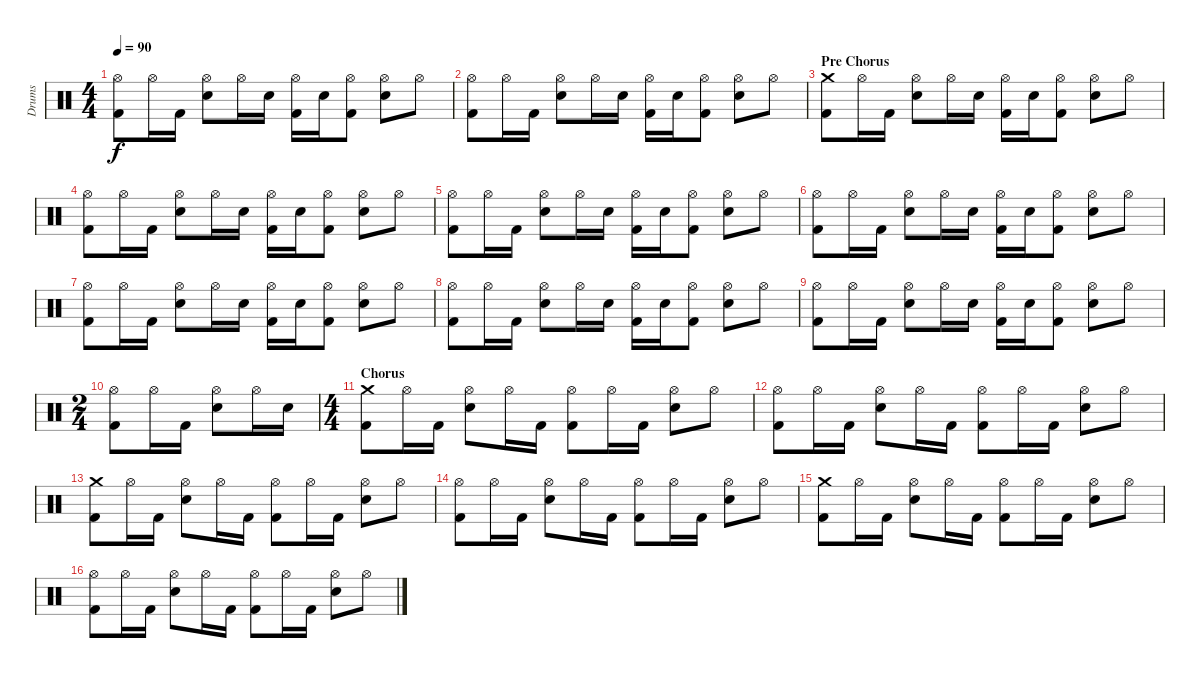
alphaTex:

\track ("Drums" "Drums") {instrument percussion}
\staff {score}
\articulation defaults
\ts (4 4)
\tempo 90
\clef neutral
\ks c
("Hi-Hat (open)" "Kick (hit) 2").8{dy f} "Hi-Hat (open)".16 "Kick (hit) 2".16 ("Hi-Hat (open)" "Electric Snare (hit)").8 "Hi-Hat (open)".16 "Electric Snare (hit)".16 ("Hi-Hat (open)" "Kick (hit) 2").16 "Electric Snare (hit)".16 ("Hi-Hat (open)" "Kick (hit) 2").8 ("Hi-Hat (open)" "Electric Snare (hit)").8 "Hi-Hat (open)".8 |
("Hi-Hat (open)" "Kick (hit) 2").8 "Hi-Hat (open)".16 "Kick (hit) 2".16 ("Hi-Hat (open)" "Electric Snare (hit)").8 "Hi-Hat (open)".16 "Electric Snare (hit)".16 ("Hi-Hat (open)" "Kick (hit) 2").16 "Electric Snare (hit)".16 ("Hi-Hat (open)" "Kick (hit) 2").8 ("Hi-Hat (open)" "Electric Snare (hit)").8 "Hi-Hat (open)".8 |
\section ("" "Pre Chorus")
("Crash medium (hit)" "Kick (hit) 2").8 "Hi-Hat (open)".16 "Kick (hit) 2".16 ("Hi-Hat (open)" "Electric Snare (hit)").8 "Hi-Hat (open)".16 "Electric Snare (hit)".16 ("Hi-Hat (open)" "Kick (hit) 2").16 "Electric Snare (hit)".16 ("Hi-Hat (open)" "Kick (hit) 2").8 ("Hi-Hat (open)" "Electric Snare (hit)").8 "Hi-Hat (open)".8 |
("Hi-Hat (open)" "Kick (hit) 2").8 "Hi-Hat (open)".16 "Kick (hit) 2".16 ("Hi-Hat (open)" "Electric Snare (hit)").8 "Hi-Hat (open)".16 "Electric Snare (hit)".16 ("Hi-Hat (open)" "Kick (hit) 2").16 "Electric Snare (hit)".16 ("Hi-Hat (open)" "Kick (hit) 2").8 ("Hi-Hat (open)" "Electric Snare (hit)").8 "Hi-Hat (open)".8 |
("Hi-Hat (open)" "Kick (hit) 2").8 "Hi-Hat (open)".16 "Kick (hit) 2".16 ("Hi-Hat (open)" "Electric Snare (hit)").8 "Hi-Hat (open)".16 "Electric Snare (hit)".16 ("Hi-Hat (open)" "Kick (hit) 2").16 "Electric Snare (hit)".16 ("Hi-Hat (open)" "Kick (hit) 2").8 ("Hi-Hat (open)" "Electric Snare (hit)").8 "Hi-Hat (open)".8 |
("Hi-Hat (open)" "Kick (hit) 2").8 "Hi-Hat (open)".16 "Kick (hit) 2".16 ("Hi-Hat (open)" "Electric Snare (hit)").8 "Hi-Hat (open)".16 "Electric Snare (hit)".16 ("Hi-Hat (open)" "Kick (hit) 2").16 "Electric Snare (hit)".16 ("Hi-Hat (open)" "Kick (hit) 2").8 ("Hi-Hat (open)" "Electric Snare (hit)").8 "Hi-Hat (open)".8 |
("Hi-Hat (open)" "Kick (hit) 2").8 "Hi-Hat (open)".16 "Kick (hit) 2".16 ("Hi-Hat (open)" "Electric Snare (hit)").8 "Hi-Hat (open)".16 "Electric Snare (hit)".16 ("Hi-Hat (open)" "Kick (hit) 2").16 "Electric Snare (hit)".16 ("Hi-Hat (open)" "Kick (hit) 2").8 ("Hi-Hat (open)" "Electric Snare (hit)").8 "Hi-Hat (open)".8 |
("Hi-Hat (open)" "Kick (hit) 2").8 "Hi-Hat (open)".16 "Kick (hit) 2".16 ("Hi-Hat (open)" "Electric Snare (hit)").8 "Hi-Hat (open)".16 "Electric Snare (hit)".16 ("Hi-Hat (open)" "Kick (hit) 2").16 "Electric Snare (hit)".16 ("Hi-Hat (open)" "Kick (hit) 2").8 ("Hi-Hat (open)" "Electric Snare (hit)").8 "Hi-Hat (open)".8 |
("Hi-Hat (open)" "Kick (hit) 2").8 "Hi-Hat (open)".16 "Kick (hit) 2".16 ("Hi-Hat (open)" "Electric Snare (hit)").8 "Hi-Hat (open)".16 "Electric Snare (hit)".16 ("Hi-Hat (open)" "Kick (hit) 2").16 "Electric Snare (hit)".16 ("Hi-Hat (open)" "Kick (hit) 2").8 ("Hi-Hat (open)" "Electric Snare (hit)").8 "Hi-Hat (open)".8 |
\ts (2 4)
("Hi-Hat (open)" "Kick (hit) 2").8 "Hi-Hat (open)".16 "Kick (hit) 2".16 ("Hi-Hat (open)" "Electric Snare (hit)").8 "Hi-Hat (open)".16 "Electric Snare (hit)".16 |
\ts (4 4)
\section ("" "Chorus")
("Crash medium (hit)" "Kick (hit) 2").8 "Hi-Hat (open)".16 "Kick (hit) 2".16 ("Hi-Hat (open)" "Electric Snare (hit)").8 "Hi-Hat (open)".16 "Kick (hit) 2".16 ("Hi-Hat (open)" "Kick (hit) 2").8 "Hi-Hat (open)".16 "Kick (hit) 2".16 ("Hi-Hat (open)" "Electric Snare (hit)").8 "Hi-Hat (open)".8 |
("Hi-Hat (open)" "Kick (hit) 2").8 "Hi-Hat (open)".16 "Kick (hit) 2".16 ("Hi-Hat (open)" "Electric Snare (hit)").8 "Hi-Hat (open)".16 "Kick (hit) 2".16 ("Hi-Hat (open)" "Kick (hit) 2").8 "Hi-Hat (open)".16 "Kick (hit) 2".16 ("Hi-Hat (open)" "Electric Snare (hit)").8 "Hi-Hat (open)".8 |
("Crash medium (hit)" "Kick (hit) 2").8 "Hi-Hat (open)".16 "Kick (hit) 2".16 ("Hi-Hat (open)" "Electric Snare (hit)").8 "Hi-Hat (open)".16 "Kick (hit) 2".16 ("Hi-Hat (open)" "Kick (hit) 2").8 "Hi-Hat (open)".16 "Kick (hit) 2".16 ("Hi-Hat (open)" "Electric Snare (hit)").8 "Hi-Hat (open)".8 |
("Hi-Hat (open)" "Kick (hit) 2").8 "Hi-Hat (open)".16 "Kick (hit) 2".16 ("Hi-Hat (open)" "Electric Snare (hit)").8 "Hi-Hat (open)".16 "Kick (hit) 2".16 ("Hi-Hat (open)" "Kick (hit) 2").8 "Hi-Hat (open)".16 "Kick (hit) 2".16 ("Hi-Hat (open)" "Electric Snare (hit)").8 "Hi-Hat (open)".8 |
("Crash medium (hit)" "Kick (hit) 2").8 "Hi-Hat (open)".16 "Kick (hit) 2".16 ("Hi-Hat (open)" "Electric Snare (hit)").8 "Hi-Hat (open)".16 "Kick (hit) 2".16 ("Hi-Hat (open)" "Kick (hit) 2").8 "Hi-Hat (open)".16 "Kick (hit) 2".16 ("Hi-Hat (open)" "Electric Snare (hit)").8 "Hi-Hat (open)".8 |
("Hi-Hat (open)" "Kick (hit) 2").8 "Hi-Hat (open)".16 "Kick (hit) 2".16 ("Hi-Hat (open)" "Electric Snare (hit)").8 "Hi-Hat (open)".16 "Kick (hit) 2".16 ("Hi-Hat (open)" "Kick (hit) 2").8 "Hi-Hat (open)".16 "Kick (hit) 2".16 ("Hi-Hat (open)" "Electric Snare (hit)").8 "Hi-Hat (open)".8
